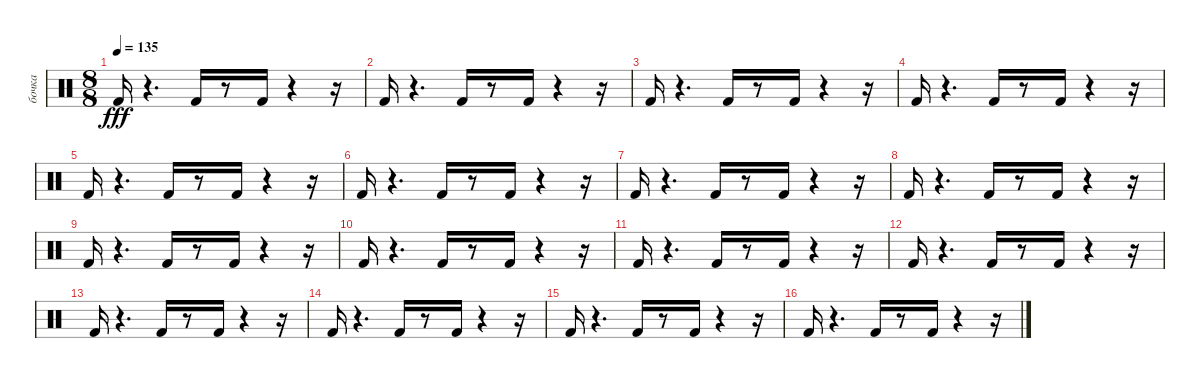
\track ("бочка" "бочка") {instrument percussion}
\staff {score}
\articulation defaults
\ts (8 8)
\tempo 135
\clef neutral
\ks c "Kick (hit) 2".16{dy fff}
r.4{d} "Kick (hit) 2".16 r.8 "Kick (hit) 2".16 r.4 r.16 |
"Kick (hit) 2".16 r.4{d} "Kick (hit) 2".16 r.8 "Kick (hit) 2".16 r.4 r.16 |
"Kick (hit) 2".16 r.4{d} "Kick (hit) 2".16 r.8 "Kick (hit) 2".16 r.4 r.16 |
"Kick (hit) 2".16 r.4{d} "Kick (hit) 2".16 r.8 "Kick (hit) 2".16 r.4 r.16 |
"Kick (hit) 2".16 r.4{d} "Kick (hit) 2".16 r.8 "Kick (hit) 2".16 r.4 r.16 |
"Kick (hit) 2".16 r.4{d} "Kick (hit) 2".16 r.8 "Kick (hit) 2".16 r.4 r.16 |
"Kick (hit) 2".16 r.4{d} "Kick (hit) 2".16 r.8 "Kick (hit) 2".16 r.4 r.16 |
"Kick (hit) 2".16 r.4{d} "Kick (hit) 2".16 r.8 "Kick (hit) 2".16 r.4 r.16 |
"Kick (hit) 2".16 r.4{d} "Kick (hit) 2".16 r.8 "Kick (hit) 2".16 r.4 r.16 |
"Kick (hit) 2".16 r.4{d} "Kick (hit) 2".16 r.8 "Kick (hit) 2".16 r.4 r.16 |
"Kick (hit) 2".16 r.4{d} "Kick (hit) 2".16 r.8 "Kick (hit) 2".16 r.4 r.16 |
"Kick (hit) 2".16 r.4{d} "Kick (hit) 2".16 r.8 "Kick (hit) 2".16 r.4 r.16 |
"Kick (hit) 2".16 r.4{d} "Kick (hit) 2".16 r.8 "Kick (hit) 2".16 r.4 r.16 |
"Kick (hit) 2".16 r.4{d} "Kick (hit) 2".16 r.8 "Kick (hit) 2".16 r.4 r.16 |
"Kick (hit) 2".16 r.4{d} "Kick (hit) 2".16 r.8 "Kick (hit) 2".16 r.4 r.16 |
"Kick (hit) 2".16 r.4{d} "Kick (hit) 2".16 r.8 "Kick (hit) 2".16 r.4 r.16
